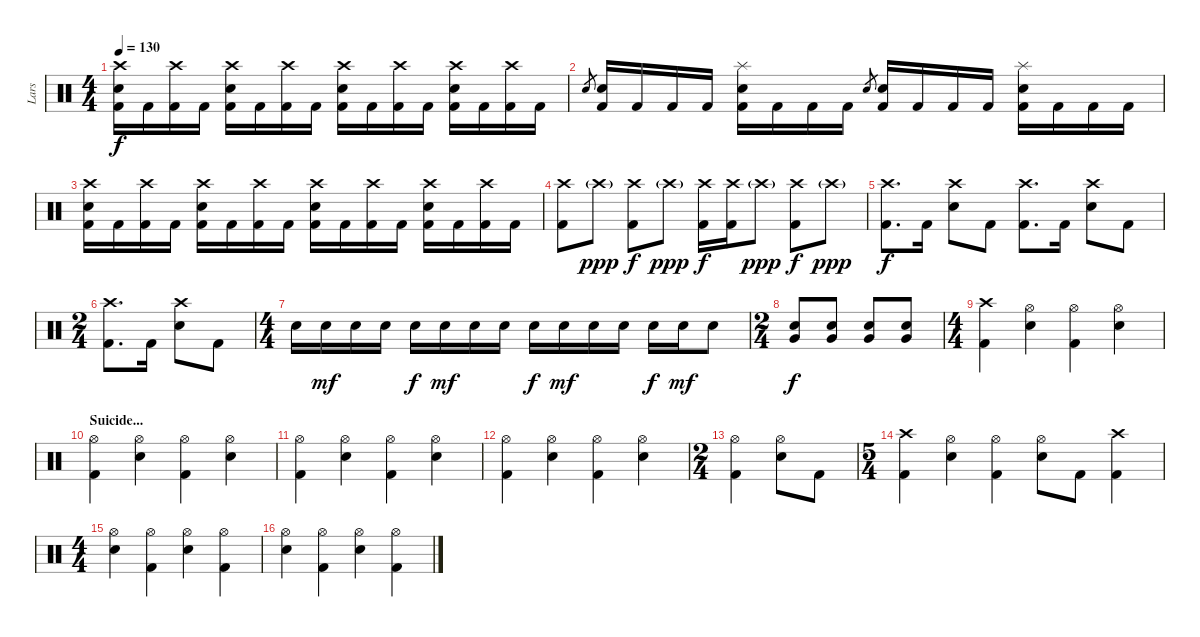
\track ("Lars" "Lars") {instrument percussion}
\staff {score}
\articulation defaults
\ts (4 4)
\section ("" "")
\tempo 130
\clef neutral
\ks c
("Kick (hit) 2" "Electric Snare (hit)" "Crash high (hit)").16{dy f} "Kick (hit) 2".16 ("Kick (hit) 2" "Crash high (hit)").16 "Kick (hit) 2".16 ("Kick (hit) 2" "Electric Snare (hit)" "Crash high (hit)").16 "Kick (hit) 2".16 ("Kick (hit) 2" "Crash high (hit)").16 "Kick (hit) 2".16 ("Kick (hit) 2" "Electric Snare (hit)" "Crash high (hit)").16 "Kick (hit) 2".16 ("Kick (hit) 2" "Crash high (hit)").16 "Kick (hit) 2".16 ("Kick (hit) 2" "Electric Snare (hit)" "Crash high (hit)").16 "Kick (hit) 2".16 ("Kick (hit) 2" "Crash high (hit)").16 "Kick (hit) 2".16 |
"Electric Snare (hit)".8{gr} ("Kick (hit) 2" "Electric Snare (hit)").16 "Kick (hit) 2".16 "Kick (hit) 2".16 "Kick (hit) 2".16 ("Kick (hit) 2" "Electric Snare (hit)" "Splash (hit)").16 "Kick (hit) 2".16 "Kick (hit) 2".16 "Kick (hit) 2".16 "Electric Snare (hit)".8{gr} ("Kick (hit) 2" "Electric Snare (hit)").16 "Kick (hit) 2".16 "Kick (hit) 2".16 "Kick (hit) 2".16 ("Kick (hit) 2" "Electric Snare (hit)" "Splash (hit)").16 "Kick (hit) 2".16 "Kick (hit) 2".16 "Kick (hit) 2".16 |
("Kick (hit) 2" "Electric Snare (hit)" "Crash high (hit)").16 "Kick (hit) 2".16 ("Kick (hit) 2" "Crash high (hit)").16 "Kick (hit) 2".16 ("Kick (hit) 2" "Electric Snare (hit)" "Crash high (hit)").16 "Kick (hit) 2".16 ("Kick (hit) 2" "Crash high (hit)").16 "Kick (hit) 2".16 ("Kick (hit) 2" "Electric Snare (hit)" "Crash high (hit)").16 "Kick (hit) 2".16 ("Kick (hit) 2" "Crash high (hit)").16 "Kick (hit) 2".16 ("Kick (hit) 2" "Electric Snare (hit)" "Crash high (hit)").16 "Kick (hit) 2".16 ("Kick (hit) 2" "Crash high (hit)").16 "Kick (hit) 2".16 |
("Kick (hit) 2" "Crash high (hit)").8 "Crash high (hit)"{g}.8{dy ppp} ("Kick (hit) 2" "Crash high (hit)").8{dy f} "Crash high (hit)"{g}.8{dy ppp} ("Kick (hit) 2" "Crash high (hit)").16{dy f} ("Kick (hit) 2" "Crash high (hit)").16 "Crash high (hit)"{g}.8{dy ppp} ("Kick (hit) 2" "Crash high (hit)").8{dy f} "Crash high (hit)"{g}.8{dy ppp} |
("Kick (hit) 2" "Crash high (hit)").8{d dy f} "Kick (hit) 2".16 ("Electric Snare (hit)" "Crash high (hit)").8 "Kick (hit) 2".8 ("Kick (hit) 2" "Crash high (hit)").8{d} "Kick (hit) 2".16 ("Electric Snare (hit)" "Crash high (hit)").8 "Kick (hit) 2".8 |
\ts (2 4)
("Kick (hit) 2" "Crash high (hit)").8{d} "Kick (hit) 2".16 ("Electric Snare (hit)" "Crash high (hit)").8 "Kick (hit) 2".8 |
\ts (4 4)
"Electric Snare (hit)".16 "Electric Snare (hit)".16{dy mf} "Electric Snare (hit)".16 "Electric Snare (hit)".16 "Electric Snare (hit)".16{dy f} "Electric Snare (hit)".16{dy mf} "Electric Snare (hit)".16 "Electric Snare (hit)".16 "Electric Snare (hit)".16{dy f} "Electric Snare (hit)".16{dy mf} "Electric Snare (hit)".16 "Electric Snare (hit)".16 "Electric Snare (hit)".16{dy f} "Electric Snare (hit)".16{dy mf} "Electric Snare (hit)".8 |
\ts (2 4)
("Electric Snare (hit)" "Very Low Tom (hit)").8{bu 120 dy f} ("Electric Snare (hit)" "Very Low Tom (hit)").8{bu 120} ("Electric Snare (hit)" "Very Low Tom (hit)").8{bu 120} ("Electric Snare (hit)" "Very Low Tom (hit)").8{bu 120} |
\ts (4 4)
("Kick (hit) 2" "Crash high (hit)").4 ("Electric Snare (hit)" "Hi-Hat (open)").4 ("Kick (hit) 2" "Hi-Hat (open)").4 ("Electric Snare (hit)" "Hi-Hat (open)").4 |
\section ("" "Suicide...")
("Kick (hit) 2" "Hi-Hat (open)").4 ("Electric Snare (hit)" "Hi-Hat (open)").4 ("Kick (hit) 2" "Hi-Hat (open)").4 ("Electric Snare (hit)" "Hi-Hat (open)").4 |
("Kick (hit) 2" "Hi-Hat (open)").4 ("Electric Snare (hit)" "Hi-Hat (open)").4 ("Kick (hit) 2" "Hi-Hat (open)").4 ("Electric Snare (hit)" "Hi-Hat (open)").4 |
("Kick (hit) 2" "Hi-Hat (open)").4 ("Electric Snare (hit)" "Hi-Hat (open)").4 ("Kick (hit) 2" "Hi-Hat (open)").4 ("Electric Snare (hit)" "Hi-Hat (open)").4 |
\ts (2 4)
("Kick (hit) 2" "Hi-Hat (open)").4 ("Electric Snare (hit)" "Hi-Hat (open)").8 "Kick (hit) 2".8 |
\ts (5 4)
("Kick (hit) 2" "Crash high (hit)").4 ("Electric Snare (hit)" "Hi-Hat (open)").4 ("Kick (hit) 2" "Hi-Hat (open)").4 ("Electric Snare (hit)" "Hi-Hat (open)").8 "Kick (hit) 2".8 ("Kick (hit) 2" "Crash high (hit)").4 |
\ts (4 4)
("Electric Snare (hit)" "Hi-Hat (open)").4 ("Kick (hit) 2" "Hi-Hat (open)").4 ("Electric Snare (hit)" "Hi-Hat (open)").4 ("Kick (hit) 2" "Hi-Hat (open)").4 |
("Electric Snare (hit)" "Hi-Hat (open)").4 ("Kick (hit) 2" "Hi-Hat (open)").4 ("Electric Snare (hit)" "Hi-Hat (open)").4 ("Kick (hit) 2" "Hi-Hat (open)").4
